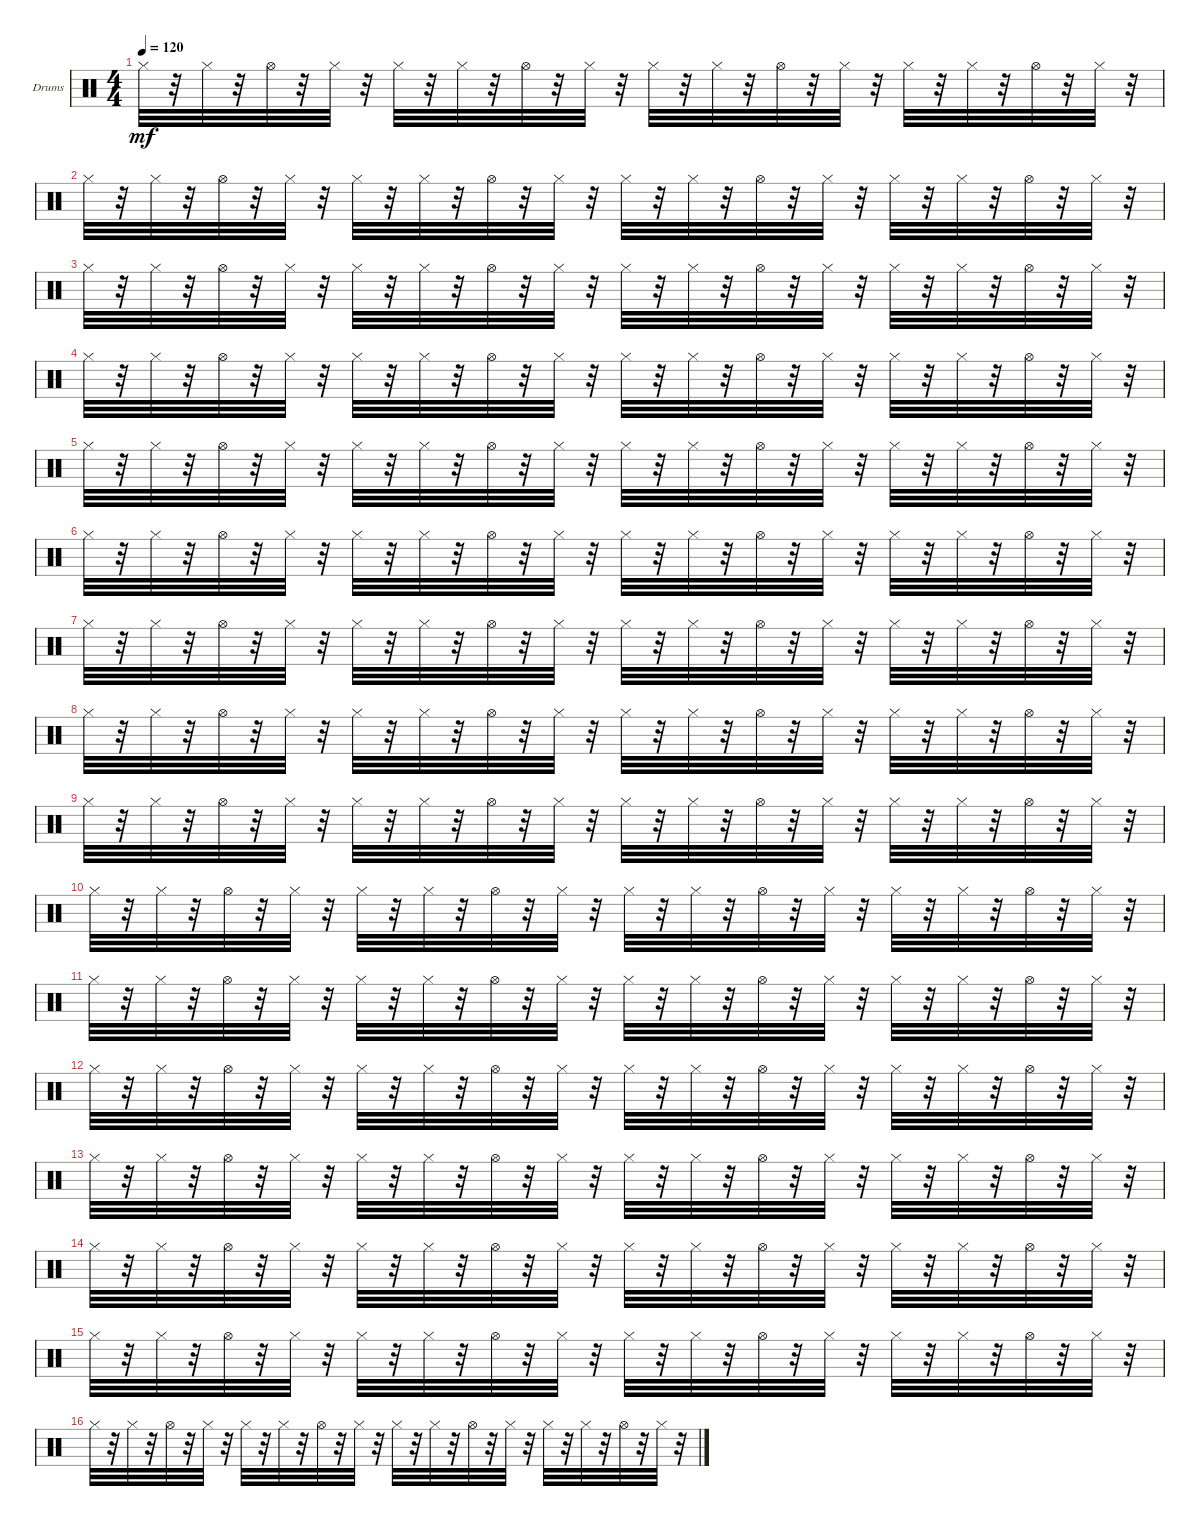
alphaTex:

\defaultSystemsLayout 4
\bracketExtendMode groupsimilarinstruments
\firstSystemTrackNameOrientation horizontal
\otherSystemsTrackNameOrientation horizontal
\track ("Drumkit" "Drums") {instrument percussion}
\staff {score}
\articulation defaults
\ts (4 4)
\tempo 120
\clef neutral
\ks c "Hi-Hat (closed)".32{dy mf}
r.32 "Hi-Hat (closed)".32 r.32 "Hi-Hat (open)".32 r.32 "Hi-Hat (closed)".32 r.32 "Hi-Hat (closed)".32 r.32 "Hi-Hat (closed)".32 r.32 "Hi-Hat (open)".32 r.32 "Hi-Hat (closed)".32 r.32 "Hi-Hat (closed)".32 r.32 "Hi-Hat (closed)".32 r.32 "Hi-Hat (open)".32 r.32 "Hi-Hat (closed)".32 r.32 "Hi-Hat (closed)".32 r.32 "Hi-Hat (closed)".32 r.32 "Hi-Hat (open)".32 r.32 "Hi-Hat (closed)".32 r.32 |
"Hi-Hat (closed)".32 r.32 "Hi-Hat (closed)".32 r.32 "Hi-Hat (open)".32 r.32 "Hi-Hat (closed)".32 r.32 "Hi-Hat (closed)".32 r.32 "Hi-Hat (closed)".32 r.32 "Hi-Hat (open)".32 r.32 "Hi-Hat (closed)".32 r.32 "Hi-Hat (closed)".32 r.32 "Hi-Hat (closed)".32 r.32 "Hi-Hat (open)".32 r.32 "Hi-Hat (closed)".32 r.32 "Hi-Hat (closed)".32 r.32 "Hi-Hat (closed)".32 r.32 "Hi-Hat (open)".32 r.32 "Hi-Hat (closed)".32 r.32 |
"Hi-Hat (closed)".32 r.32 "Hi-Hat (closed)".32 r.32 "Hi-Hat (open)".32 r.32 "Hi-Hat (closed)".32 r.32 "Hi-Hat (closed)".32 r.32 "Hi-Hat (closed)".32 r.32 "Hi-Hat (open)".32 r.32 "Hi-Hat (closed)".32 r.32 "Hi-Hat (closed)".32 r.32 "Hi-Hat (closed)".32 r.32 "Hi-Hat (open)".32 r.32 "Hi-Hat (closed)".32 r.32 "Hi-Hat (closed)".32 r.32 "Hi-Hat (closed)".32 r.32 "Hi-Hat (open)".32 r.32 "Hi-Hat (closed)".32 r.32 |
"Hi-Hat (closed)".32 r.32 "Hi-Hat (closed)".32 r.32 "Hi-Hat (open)".32 r.32 "Hi-Hat (closed)".32 r.32 "Hi-Hat (closed)".32 r.32 "Hi-Hat (closed)".32 r.32 "Hi-Hat (open)".32 r.32 "Hi-Hat (closed)".32 r.32 "Hi-Hat (closed)".32 r.32 "Hi-Hat (closed)".32 r.32 "Hi-Hat (open)".32 r.32 "Hi-Hat (closed)".32 r.32 "Hi-Hat (closed)".32 r.32 "Hi-Hat (closed)".32 r.32 "Hi-Hat (open)".32 r.32 "Hi-Hat (closed)".32 r.32 |
"Hi-Hat (closed)".32 r.32 "Hi-Hat (closed)".32 r.32 "Hi-Hat (open)".32 r.32 "Hi-Hat (closed)".32 r.32 "Hi-Hat (closed)".32 r.32 "Hi-Hat (closed)".32 r.32 "Hi-Hat (open)".32 r.32 "Hi-Hat (closed)".32 r.32 "Hi-Hat (closed)".32 r.32 "Hi-Hat (closed)".32 r.32 "Hi-Hat (open)".32 r.32 "Hi-Hat (closed)".32 r.32 "Hi-Hat (closed)".32 r.32 "Hi-Hat (closed)".32 r.32 "Hi-Hat (open)".32 r.32 "Hi-Hat (closed)".32 r.32 |
"Hi-Hat (closed)".32 r.32 "Hi-Hat (closed)".32 r.32 "Hi-Hat (open)".32 r.32 "Hi-Hat (closed)".32 r.32 "Hi-Hat (closed)".32 r.32 "Hi-Hat (closed)".32 r.32 "Hi-Hat (open)".32 r.32 "Hi-Hat (closed)".32 r.32 "Hi-Hat (closed)".32 r.32 "Hi-Hat (closed)".32 r.32 "Hi-Hat (open)".32 r.32 "Hi-Hat (closed)".32 r.32 "Hi-Hat (closed)".32 r.32 "Hi-Hat (closed)".32 r.32 "Hi-Hat (open)".32 r.32 "Hi-Hat (closed)".32 r.32 |
"Hi-Hat (closed)".32 r.32 "Hi-Hat (closed)".32 r.32 "Hi-Hat (open)".32 r.32 "Hi-Hat (closed)".32 r.32 "Hi-Hat (closed)".32 r.32 "Hi-Hat (closed)".32 r.32 "Hi-Hat (open)".32 r.32 "Hi-Hat (closed)".32 r.32 "Hi-Hat (closed)".32 r.32 "Hi-Hat (closed)".32 r.32 "Hi-Hat (open)".32 r.32 "Hi-Hat (closed)".32 r.32 "Hi-Hat (closed)".32 r.32 "Hi-Hat (closed)".32 r.32 "Hi-Hat (open)".32 r.32 "Hi-Hat (closed)".32 r.32 |
"Hi-Hat (closed)".32 r.32 "Hi-Hat (closed)".32 r.32 "Hi-Hat (open)".32 r.32 "Hi-Hat (closed)".32 r.32 "Hi-Hat (closed)".32 r.32 "Hi-Hat (closed)".32 r.32 "Hi-Hat (open)".32 r.32 "Hi-Hat (closed)".32 r.32 "Hi-Hat (closed)".32 r.32 "Hi-Hat (closed)".32 r.32 "Hi-Hat (open)".32 r.32 "Hi-Hat (closed)".32 r.32 "Hi-Hat (closed)".32 r.32 "Hi-Hat (closed)".32 r.32 "Hi-Hat (open)".32 r.32 "Hi-Hat (closed)".32 r.32 |
"Hi-Hat (closed)".32 r.32 "Hi-Hat (closed)".32 r.32 "Hi-Hat (open)".32 r.32 "Hi-Hat (closed)".32 r.32 "Hi-Hat (closed)".32 r.32 "Hi-Hat (closed)".32 r.32 "Hi-Hat (open)".32 r.32 "Hi-Hat (closed)".32 r.32 "Hi-Hat (closed)".32 r.32 "Hi-Hat (closed)".32 r.32 "Hi-Hat (open)".32 r.32 "Hi-Hat (closed)".32 r.32 "Hi-Hat (closed)".32 r.32 "Hi-Hat (closed)".32 r.32 "Hi-Hat (open)".32 r.32 "Hi-Hat (closed)".32 r.32 |
"Hi-Hat (closed)".32 r.32 "Hi-Hat (closed)".32 r.32 "Hi-Hat (open)".32 r.32 "Hi-Hat (closed)".32 r.32 "Hi-Hat (closed)".32 r.32 "Hi-Hat (closed)".32 r.32 "Hi-Hat (open)".32 r.32 "Hi-Hat (closed)".32 r.32 "Hi-Hat (closed)".32 r.32 "Hi-Hat (closed)".32 r.32 "Hi-Hat (open)".32 r.32 "Hi-Hat (closed)".32 r.32 "Hi-Hat (closed)".32 r.32 "Hi-Hat (closed)".32 r.32 "Hi-Hat (open)".32 r.32 "Hi-Hat (closed)".32 r.32 |
"Hi-Hat (closed)".32 r.32 "Hi-Hat (closed)".32 r.32 "Hi-Hat (open)".32 r.32 "Hi-Hat (closed)".32 r.32 "Hi-Hat (closed)".32 r.32 "Hi-Hat (closed)".32 r.32 "Hi-Hat (open)".32 r.32 "Hi-Hat (closed)".32 r.32 "Hi-Hat (closed)".32 r.32 "Hi-Hat (closed)".32 r.32 "Hi-Hat (open)".32 r.32 "Hi-Hat (closed)".32 r.32 "Hi-Hat (closed)".32 r.32 "Hi-Hat (closed)".32 r.32 "Hi-Hat (open)".32 r.32 "Hi-Hat (closed)".32 r.32 |
"Hi-Hat (closed)".32 r.32 "Hi-Hat (closed)".32 r.32 "Hi-Hat (open)".32 r.32 "Hi-Hat (closed)".32 r.32 "Hi-Hat (closed)".32 r.32 "Hi-Hat (closed)".32 r.32 "Hi-Hat (open)".32 r.32 "Hi-Hat (closed)".32 r.32 "Hi-Hat (closed)".32 r.32 "Hi-Hat (closed)".32 r.32 "Hi-Hat (open)".32 r.32 "Hi-Hat (closed)".32 r.32 "Hi-Hat (closed)".32 r.32 "Hi-Hat (closed)".32 r.32 "Hi-Hat (open)".32 r.32 "Hi-Hat (closed)".32 r.32 |
"Hi-Hat (closed)".32 r.32 "Hi-Hat (closed)".32 r.32 "Hi-Hat (open)".32 r.32 "Hi-Hat (closed)".32 r.32 "Hi-Hat (closed)".32 r.32 "Hi-Hat (closed)".32 r.32 "Hi-Hat (open)".32 r.32 "Hi-Hat (closed)".32 r.32 "Hi-Hat (closed)".32 r.32 "Hi-Hat (closed)".32 r.32 "Hi-Hat (open)".32 r.32 "Hi-Hat (closed)".32 r.32 "Hi-Hat (closed)".32 r.32 "Hi-Hat (closed)".32 r.32 "Hi-Hat (open)".32 r.32 "Hi-Hat (closed)".32 r.32 |
"Hi-Hat (closed)".32 r.32 "Hi-Hat (closed)".32 r.32 "Hi-Hat (open)".32 r.32 "Hi-Hat (closed)".32 r.32 "Hi-Hat (closed)".32 r.32 "Hi-Hat (closed)".32 r.32 "Hi-Hat (open)".32 r.32 "Hi-Hat (closed)".32 r.32 "Hi-Hat (closed)".32 r.32 "Hi-Hat (closed)".32 r.32 "Hi-Hat (open)".32 r.32 "Hi-Hat (closed)".32 r.32 "Hi-Hat (closed)".32 r.32 "Hi-Hat (closed)".32 r.32 "Hi-Hat (open)".32 r.32 "Hi-Hat (closed)".32 r.32 |
"Hi-Hat (closed)".32 r.32 "Hi-Hat (closed)".32 r.32 "Hi-Hat (open)".32 r.32 "Hi-Hat (closed)".32 r.32 "Hi-Hat (closed)".32 r.32 "Hi-Hat (closed)".32 r.32 "Hi-Hat (open)".32 r.32 "Hi-Hat (closed)".32 r.32 "Hi-Hat (closed)".32 r.32 "Hi-Hat (closed)".32 r.32 "Hi-Hat (open)".32 r.32 "Hi-Hat (closed)".32 r.32 "Hi-Hat (closed)".32 r.32 "Hi-Hat (closed)".32 r.32 "Hi-Hat (open)".32 r.32 "Hi-Hat (closed)".32 r.32 |
"Hi-Hat (closed)".32 r.32 "Hi-Hat (closed)".32 r.32 "Hi-Hat (open)".32 r.32 "Hi-Hat (closed)".32 r.32 "Hi-Hat (closed)".32 r.32 "Hi-Hat (closed)".32 r.32 "Hi-Hat (open)".32 r.32 "Hi-Hat (closed)".32 r.32 "Hi-Hat (closed)".32 r.32 "Hi-Hat (closed)".32 r.32 "Hi-Hat (open)".32 r.32 "Hi-Hat (closed)".32 r.32 "Hi-Hat (closed)".32 r.32 "Hi-Hat (closed)".32 r.32 "Hi-Hat (open)".32 r.32 "Hi-Hat (closed)".32 r.32
